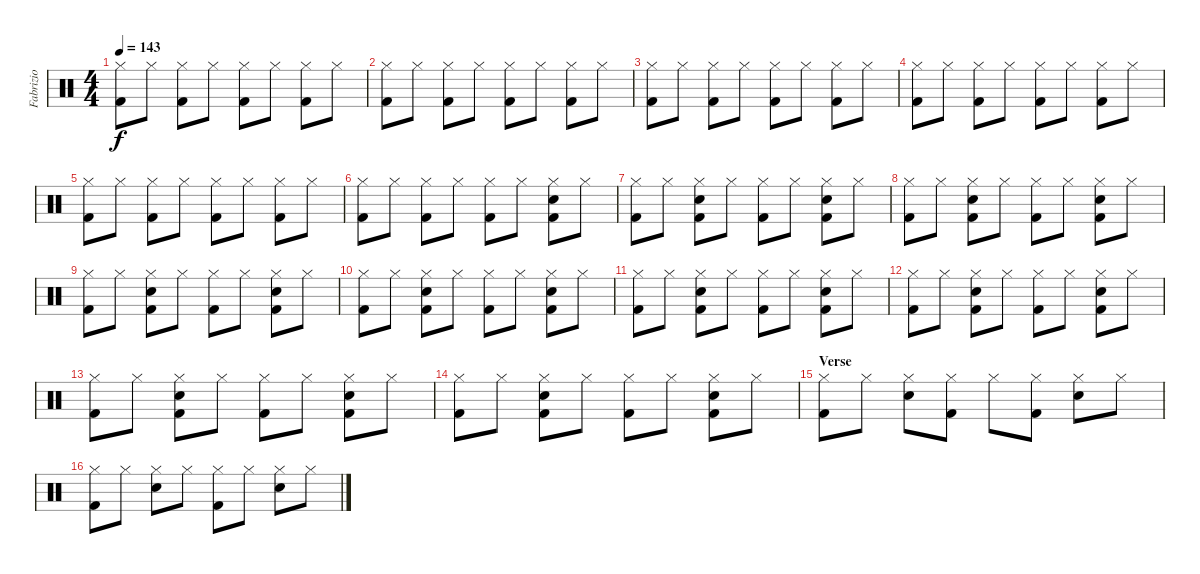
\track ("Fabrizio" "Fabrizio") {instrument percussion}
\staff {score}
\articulation defaults
\ts (4 4)
\tempo 143
\clef neutral
\ks c
("Hi-Hat (closed)" "Kick (hit) 2").8{dy f} "Hi-Hat (closed)".8 ("Hi-Hat (closed)" "Kick (hit) 2").8 "Hi-Hat (closed)".8 ("Hi-Hat (closed)" "Kick (hit) 2").8 "Hi-Hat (closed)".8 ("Hi-Hat (closed)" "Kick (hit) 2").8 "Hi-Hat (closed)".8 |
("Hi-Hat (closed)" "Kick (hit) 2").8 "Hi-Hat (closed)".8 ("Hi-Hat (closed)" "Kick (hit) 2").8 "Hi-Hat (closed)".8 ("Hi-Hat (closed)" "Kick (hit) 2").8 "Hi-Hat (closed)".8 ("Hi-Hat (closed)" "Kick (hit) 2").8 "Hi-Hat (closed)".8 |
("Hi-Hat (closed)" "Kick (hit) 2").8 "Hi-Hat (closed)".8 ("Hi-Hat (closed)" "Kick (hit) 2").8 "Hi-Hat (closed)".8 ("Hi-Hat (closed)" "Kick (hit) 2").8 "Hi-Hat (closed)".8 ("Hi-Hat (closed)" "Kick (hit) 2").8 "Hi-Hat (closed)".8 |
("Hi-Hat (closed)" "Kick (hit) 2").8 "Hi-Hat (closed)".8 ("Hi-Hat (closed)" "Kick (hit) 2").8 "Hi-Hat (closed)".8 ("Hi-Hat (closed)" "Kick (hit) 2").8 "Hi-Hat (closed)".8 ("Hi-Hat (closed)" "Kick (hit) 2").8 "Hi-Hat (closed)".8 |
("Hi-Hat (closed)" "Kick (hit) 2").8 "Hi-Hat (closed)".8 ("Hi-Hat (closed)" "Kick (hit) 2").8 "Hi-Hat (closed)".8 ("Hi-Hat (closed)" "Kick (hit) 2").8 "Hi-Hat (closed)".8 ("Hi-Hat (closed)" "Kick (hit) 2").8 "Hi-Hat (closed)".8 |
("Hi-Hat (closed)" "Kick (hit) 2").8 "Hi-Hat (closed)".8 ("Hi-Hat (closed)" "Kick (hit) 2").8 "Hi-Hat (closed)".8 ("Hi-Hat (closed)" "Kick (hit) 2").8 "Hi-Hat (closed)".8 ("Hi-Hat (closed)" "Electric Snare (hit)" "Kick (hit) 2").8 "Hi-Hat (closed)".8 |
("Hi-Hat (closed)" "Kick (hit) 2").8 "Hi-Hat (closed)".8 ("Hi-Hat (closed)" "Electric Snare (hit)" "Kick (hit) 2").8 "Hi-Hat (closed)".8 ("Hi-Hat (closed)" "Kick (hit) 2").8 "Hi-Hat (closed)".8 ("Hi-Hat (closed)" "Electric Snare (hit)" "Kick (hit) 2").8 "Hi-Hat (closed)".8 |
("Hi-Hat (closed)" "Kick (hit) 2").8 "Hi-Hat (closed)".8 ("Hi-Hat (closed)" "Electric Snare (hit)" "Kick (hit) 2").8 "Hi-Hat (closed)".8 ("Hi-Hat (closed)" "Kick (hit) 2").8 "Hi-Hat (closed)".8 ("Hi-Hat (closed)" "Electric Snare (hit)" "Kick (hit) 2").8 "Hi-Hat (closed)".8 |
("Hi-Hat (closed)" "Kick (hit) 2").8 "Hi-Hat (closed)".8 ("Hi-Hat (closed)" "Electric Snare (hit)" "Kick (hit) 2").8 "Hi-Hat (closed)".8 ("Hi-Hat (closed)" "Kick (hit) 2").8 "Hi-Hat (closed)".8 ("Hi-Hat (closed)" "Electric Snare (hit)" "Kick (hit) 2").8 "Hi-Hat (closed)".8 |
("Hi-Hat (closed)" "Kick (hit) 2").8 "Hi-Hat (closed)".8 ("Hi-Hat (closed)" "Electric Snare (hit)" "Kick (hit) 2").8 "Hi-Hat (closed)".8 ("Hi-Hat (closed)" "Kick (hit) 2").8 "Hi-Hat (closed)".8 ("Hi-Hat (closed)" "Electric Snare (hit)" "Kick (hit) 2").8 "Hi-Hat (closed)".8 |
("Hi-Hat (closed)" "Kick (hit) 2").8 "Hi-Hat (closed)".8 ("Hi-Hat (closed)" "Electric Snare (hit)" "Kick (hit) 2").8 "Hi-Hat (closed)".8 ("Hi-Hat (closed)" "Kick (hit) 2").8 "Hi-Hat (closed)".8 ("Hi-Hat (closed)" "Electric Snare (hit)" "Kick (hit) 2").8 "Hi-Hat (closed)".8 |
("Hi-Hat (closed)" "Kick (hit) 2").8 "Hi-Hat (closed)".8 ("Hi-Hat (closed)" "Electric Snare (hit)" "Kick (hit) 2").8 "Hi-Hat (closed)".8 ("Hi-Hat (closed)" "Kick (hit) 2").8 "Hi-Hat (closed)".8 ("Hi-Hat (closed)" "Electric Snare (hit)" "Kick (hit) 2").8 "Hi-Hat (closed)".8 |
("Hi-Hat (closed)" "Kick (hit) 2").8 "Hi-Hat (closed)".8 ("Hi-Hat (closed)" "Electric Snare (hit)" "Kick (hit) 2").8 "Hi-Hat (closed)".8 ("Hi-Hat (closed)" "Kick (hit) 2").8 "Hi-Hat (closed)".8 ("Hi-Hat (closed)" "Electric Snare (hit)" "Kick (hit) 2").8 "Hi-Hat (closed)".8 |
("Hi-Hat (closed)" "Kick (hit) 2").8 "Hi-Hat (closed)".8 ("Hi-Hat (closed)" "Electric Snare (hit)" "Kick (hit) 2").8 "Hi-Hat (closed)".8 ("Hi-Hat (closed)" "Kick (hit) 2").8 "Hi-Hat (closed)".8 ("Hi-Hat (closed)" "Electric Snare (hit)" "Kick (hit) 2").8 "Hi-Hat (closed)".8 |
\section ("" "Verse")
("Hi-Hat (closed)" "Kick (hit) 2").8 "Hi-Hat (closed)".8 ("Hi-Hat (closed)" "Electric Snare (hit)").8 ("Hi-Hat (closed)" "Kick (hit) 2").8 "Hi-Hat (closed)".8 ("Hi-Hat (closed)" "Kick (hit) 2").8 ("Hi-Hat (closed)" "Electric Snare (hit)").8 "Hi-Hat (closed)".8 |
("Hi-Hat (closed)" "Kick (hit) 2").8 "Hi-Hat (closed)".8 ("Hi-Hat (closed)" "Electric Snare (hit)").8 "Hi-Hat (closed)".8 ("Hi-Hat (closed)" "Kick (hit) 2").8 "Hi-Hat (closed)".8 ("Hi-Hat (closed)" "Electric Snare (hit)").8 "Hi-Hat (closed)".8
